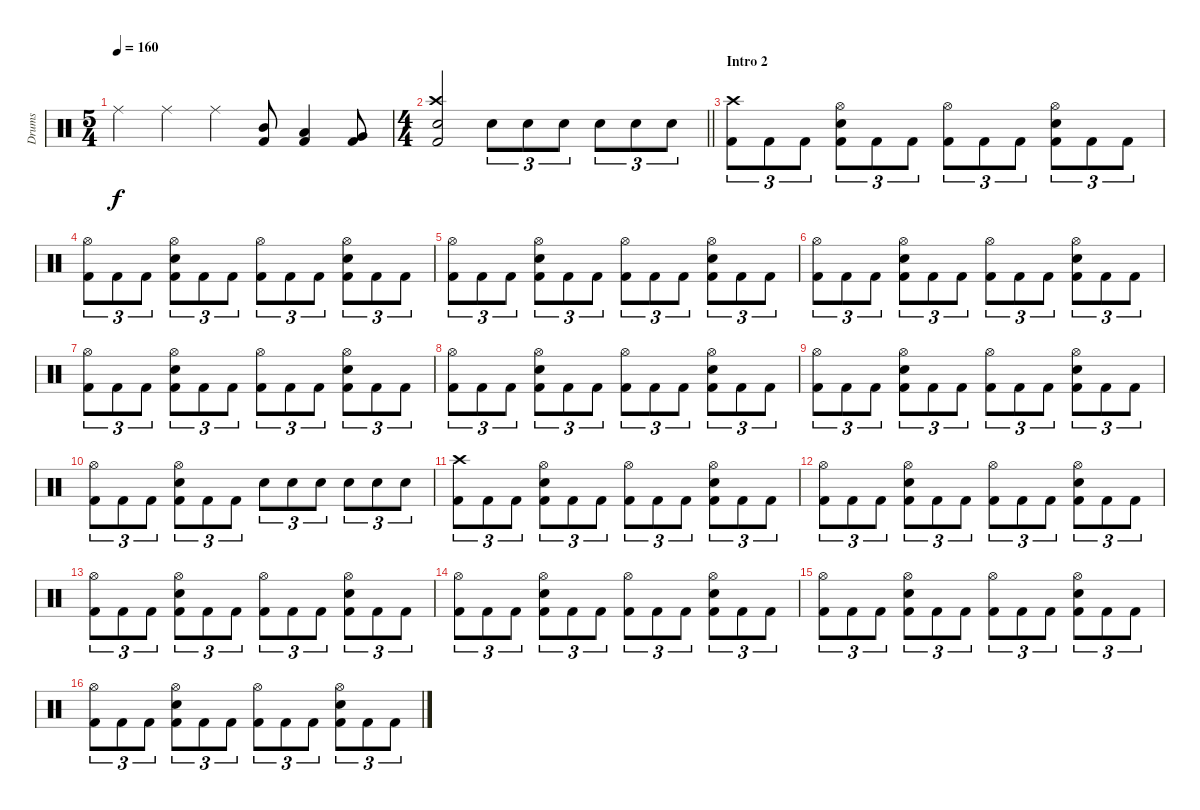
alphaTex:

\track ("Drums" "Drums") {instrument percussion}
\staff {score}
\articulation defaults
\ts (5 4)
\tempo 160
\clef neutral
\ks c "Ride (middle)".4{dy f} "Ride (middle)".4 "Ride (middle)".4
("Mid Tom (hit)" "Kick (hit) 2").8 ("Low Tom (hit)" "Kick (hit) 2").4 ("Very Low Tom (hit)" "Kick (hit) 2").8 |
\ts (4 4)
\barLineRight lightlight
("Crash high (hit)" "Snare (hit) 2" "Kick (hit) 2").2 "Snare (hit) 2".8{tu (3 2)} "Snare (hit) 2".8{tu (3 2)} "Snare (hit) 2".8{tu (3 2)} "Snare (hit) 2".8{tu (3 2)} "Snare (hit) 2".8{tu (3 2)} "Snare (hit) 2".8{tu (3 2)} |
\section ("" "Intro 2")
("Crash high (hit)" "Kick (hit) 2").8{tu (3 2)} "Kick (hit) 2".8{tu (3 2)} "Kick (hit) 2".8{tu (3 2)} ("Hi-Hat (open)" "Snare (hit) 2" "Kick (hit) 2").8{tu (3 2)} "Kick (hit) 2".8{tu (3 2)} "Kick (hit) 2".8{tu (3 2)} ("Hi-Hat (open)" "Kick (hit) 2").8{tu (3 2)} "Kick (hit) 2".8{tu (3 2)} "Kick (hit) 2".8{tu (3 2)} ("Hi-Hat (open)" "Snare (hit) 2" "Kick (hit) 2").8{tu (3 2)} "Kick (hit) 2".8{tu (3 2)} "Kick (hit) 2".8{tu (3 2)} |
("Hi-Hat (open)" "Kick (hit) 2").8{tu (3 2)} "Kick (hit) 2".8{tu (3 2)} "Kick (hit) 2".8{tu (3 2)} ("Hi-Hat (open)" "Snare (hit) 2" "Kick (hit) 2").8{tu (3 2)} "Kick (hit) 2".8{tu (3 2)} "Kick (hit) 2".8{tu (3 2)} ("Hi-Hat (open)" "Kick (hit) 2").8{tu (3 2)} "Kick (hit) 2".8{tu (3 2)} "Kick (hit) 2".8{tu (3 2)} ("Hi-Hat (open)" "Snare (hit) 2" "Kick (hit) 2").8{tu (3 2)} "Kick (hit) 2".8{tu (3 2)} "Kick (hit) 2".8{tu (3 2)} |
("Hi-Hat (open)" "Kick (hit) 2").8{tu (3 2)} "Kick (hit) 2".8{tu (3 2)} "Kick (hit) 2".8{tu (3 2)} ("Hi-Hat (open)" "Snare (hit) 2" "Kick (hit) 2").8{tu (3 2)} "Kick (hit) 2".8{tu (3 2)} "Kick (hit) 2".8{tu (3 2)} ("Hi-Hat (open)" "Kick (hit) 2").8{tu (3 2)} "Kick (hit) 2".8{tu (3 2)} "Kick (hit) 2".8{tu (3 2)} ("Hi-Hat (open)" "Snare (hit) 2" "Kick (hit) 2").8{tu (3 2)} "Kick (hit) 2".8{tu (3 2)} "Kick (hit) 2".8{tu (3 2)} |
("Hi-Hat (open)" "Kick (hit) 2").8{tu (3 2)} "Kick (hit) 2".8{tu (3 2)} "Kick (hit) 2".8{tu (3 2)} ("Hi-Hat (open)" "Snare (hit) 2" "Kick (hit) 2").8{tu (3 2)} "Kick (hit) 2".8{tu (3 2)} "Kick (hit) 2".8{tu (3 2)} ("Hi-Hat (open)" "Kick (hit) 2").8{tu (3 2)} "Kick (hit) 2".8{tu (3 2)} "Kick (hit) 2".8{tu (3 2)} ("Hi-Hat (open)" "Snare (hit) 2" "Kick (hit) 2").8{tu (3 2)} "Kick (hit) 2".8{tu (3 2)} "Kick (hit) 2".8{tu (3 2)} |
("Hi-Hat (open)" "Kick (hit) 2").8{tu (3 2)} "Kick (hit) 2".8{tu (3 2)} "Kick (hit) 2".8{tu (3 2)} ("Hi-Hat (open)" "Snare (hit) 2" "Kick (hit) 2").8{tu (3 2)} "Kick (hit) 2".8{tu (3 2)} "Kick (hit) 2".8{tu (3 2)} ("Hi-Hat (open)" "Kick (hit) 2").8{tu (3 2)} "Kick (hit) 2".8{tu (3 2)} "Kick (hit) 2".8{tu (3 2)} ("Hi-Hat (open)" "Snare (hit) 2" "Kick (hit) 2").8{tu (3 2)} "Kick (hit) 2".8{tu (3 2)} "Kick (hit) 2".8{tu (3 2)} |
("Hi-Hat (open)" "Kick (hit) 2").8{tu (3 2)} "Kick (hit) 2".8{tu (3 2)} "Kick (hit) 2".8{tu (3 2)} ("Hi-Hat (open)" "Snare (hit) 2" "Kick (hit) 2").8{tu (3 2)} "Kick (hit) 2".8{tu (3 2)} "Kick (hit) 2".8{tu (3 2)} ("Hi-Hat (open)" "Kick (hit) 2").8{tu (3 2)} "Kick (hit) 2".8{tu (3 2)} "Kick (hit) 2".8{tu (3 2)} ("Hi-Hat (open)" "Snare (hit) 2" "Kick (hit) 2").8{tu (3 2)} "Kick (hit) 2".8{tu (3 2)} "Kick (hit) 2".8{tu (3 2)} |
("Hi-Hat (open)" "Kick (hit) 2").8{tu (3 2)} "Kick (hit) 2".8{tu (3 2)} "Kick (hit) 2".8{tu (3 2)} ("Hi-Hat (open)" "Snare (hit) 2" "Kick (hit) 2").8{tu (3 2)} "Kick (hit) 2".8{tu (3 2)} "Kick (hit) 2".8{tu (3 2)} ("Hi-Hat (open)" "Kick (hit) 2").8{tu (3 2)} "Kick (hit) 2".8{tu (3 2)} "Kick (hit) 2".8{tu (3 2)} ("Hi-Hat (open)" "Snare (hit) 2" "Kick (hit) 2").8{tu (3 2)} "Kick (hit) 2".8{tu (3 2)} "Kick (hit) 2".8{tu (3 2)} |
("Hi-Hat (open)" "Kick (hit) 2").8{tu (3 2)} "Kick (hit) 2".8{tu (3 2)} "Kick (hit) 2".8{tu (3 2)} ("Hi-Hat (open)" "Snare (hit) 2" "Kick (hit) 2").8{tu (3 2)} "Kick (hit) 2".8{tu (3 2)} "Kick (hit) 2".8{tu (3 2)} "Snare (hit) 2".8{tu (3 2)} "Snare (hit) 2".8{tu (3 2)} "Snare (hit) 2".8{tu (3 2)} "Snare (hit) 2".8{tu (3 2)} "Snare (hit) 2".8{tu (3 2)} "Snare (hit) 2".8{tu (3 2)} |
("Crash high (hit)" "Kick (hit) 2").8{tu (3 2)} "Kick (hit) 2".8{tu (3 2)} "Kick (hit) 2".8{tu (3 2)} ("Hi-Hat (open)" "Snare (hit) 2" "Kick (hit) 2").8{tu (3 2)} "Kick (hit) 2".8{tu (3 2)} "Kick (hit) 2".8{tu (3 2)} ("Hi-Hat (open)" "Kick (hit) 2").8{tu (3 2)} "Kick (hit) 2".8{tu (3 2)} "Kick (hit) 2".8{tu (3 2)} ("Hi-Hat (open)" "Snare (hit) 2" "Kick (hit) 2").8{tu (3 2)} "Kick (hit) 2".8{tu (3 2)} "Kick (hit) 2".8{tu (3 2)} |
("Hi-Hat (open)" "Kick (hit) 2").8{tu (3 2)} "Kick (hit) 2".8{tu (3 2)} "Kick (hit) 2".8{tu (3 2)} ("Hi-Hat (open)" "Snare (hit) 2" "Kick (hit) 2").8{tu (3 2)} "Kick (hit) 2".8{tu (3 2)} "Kick (hit) 2".8{tu (3 2)} ("Hi-Hat (open)" "Kick (hit) 2").8{tu (3 2)} "Kick (hit) 2".8{tu (3 2)} "Kick (hit) 2".8{tu (3 2)} ("Hi-Hat (open)" "Snare (hit) 2" "Kick (hit) 2").8{tu (3 2)} "Kick (hit) 2".8{tu (3 2)} "Kick (hit) 2".8{tu (3 2)} |
("Hi-Hat (open)" "Kick (hit) 2").8{tu (3 2)} "Kick (hit) 2".8{tu (3 2)} "Kick (hit) 2".8{tu (3 2)} ("Hi-Hat (open)" "Snare (hit) 2" "Kick (hit) 2").8{tu (3 2)} "Kick (hit) 2".8{tu (3 2)} "Kick (hit) 2".8{tu (3 2)} ("Hi-Hat (open)" "Kick (hit) 2").8{tu (3 2)} "Kick (hit) 2".8{tu (3 2)} "Kick (hit) 2".8{tu (3 2)} ("Hi-Hat (open)" "Snare (hit) 2" "Kick (hit) 2").8{tu (3 2)} "Kick (hit) 2".8{tu (3 2)} "Kick (hit) 2".8{tu (3 2)} |
("Hi-Hat (open)" "Kick (hit) 2").8{tu (3 2)} "Kick (hit) 2".8{tu (3 2)} "Kick (hit) 2".8{tu (3 2)} ("Hi-Hat (open)" "Snare (hit) 2" "Kick (hit) 2").8{tu (3 2)} "Kick (hit) 2".8{tu (3 2)} "Kick (hit) 2".8{tu (3 2)} ("Hi-Hat (open)" "Kick (hit) 2").8{tu (3 2)} "Kick (hit) 2".8{tu (3 2)} "Kick (hit) 2".8{tu (3 2)} ("Hi-Hat (open)" "Snare (hit) 2" "Kick (hit) 2").8{tu (3 2)} "Kick (hit) 2".8{tu (3 2)} "Kick (hit) 2".8{tu (3 2)} |
("Hi-Hat (open)" "Kick (hit) 2").8{tu (3 2)} "Kick (hit) 2".8{tu (3 2)} "Kick (hit) 2".8{tu (3 2)} ("Hi-Hat (open)" "Snare (hit) 2" "Kick (hit) 2").8{tu (3 2)} "Kick (hit) 2".8{tu (3 2)} "Kick (hit) 2".8{tu (3 2)} ("Hi-Hat (open)" "Kick (hit) 2").8{tu (3 2)} "Kick (hit) 2".8{tu (3 2)} "Kick (hit) 2".8{tu (3 2)} ("Hi-Hat (open)" "Snare (hit) 2" "Kick (hit) 2").8{tu (3 2)} "Kick (hit) 2".8{tu (3 2)} "Kick (hit) 2".8{tu (3 2)} |
("Hi-Hat (open)" "Kick (hit) 2").8{tu (3 2)} "Kick (hit) 2".8{tu (3 2)} "Kick (hit) 2".8{tu (3 2)} ("Hi-Hat (open)" "Snare (hit) 2" "Kick (hit) 2").8{tu (3 2)} "Kick (hit) 2".8{tu (3 2)} "Kick (hit) 2".8{tu (3 2)} ("Hi-Hat (open)" "Kick (hit) 2").8{tu (3 2)} "Kick (hit) 2".8{tu (3 2)} "Kick (hit) 2".8{tu (3 2)} ("Hi-Hat (open)" "Snare (hit) 2" "Kick (hit) 2").8{tu (3 2)} "Kick (hit) 2".8{tu (3 2)} "Kick (hit) 2".8{tu (3 2)}
